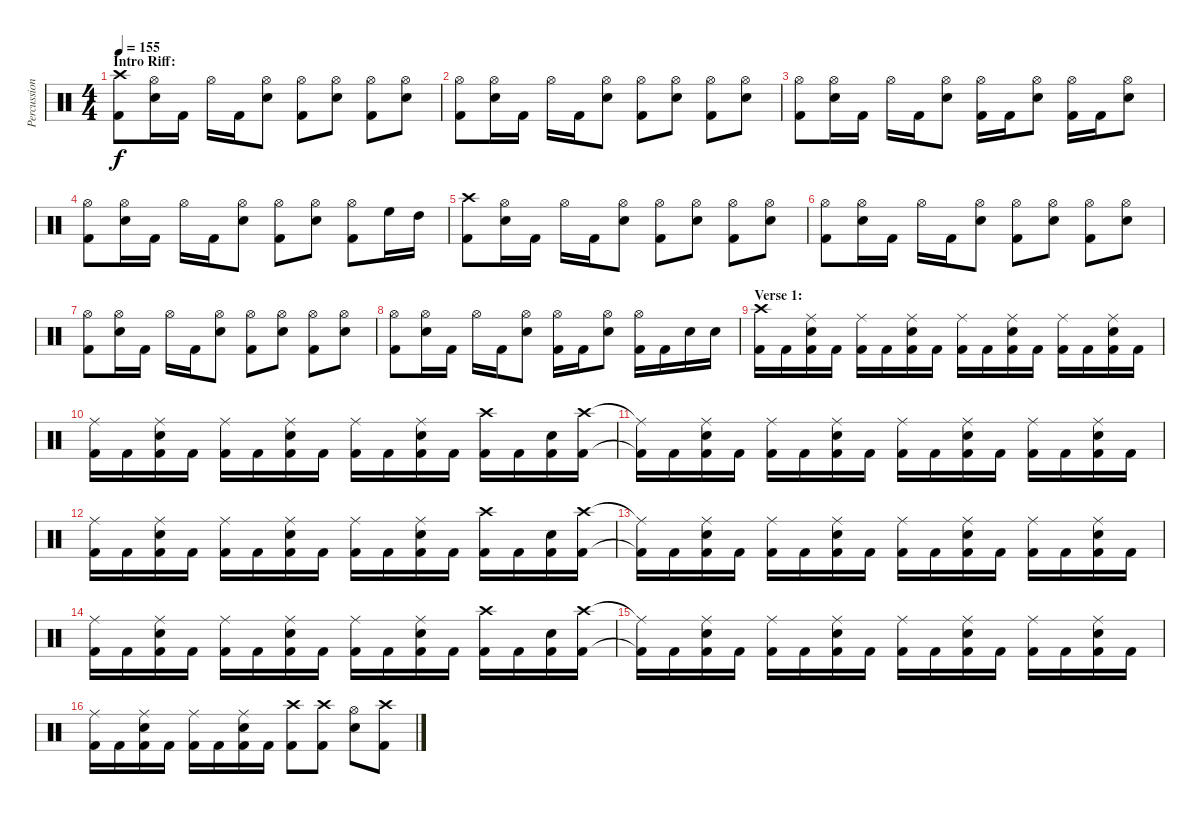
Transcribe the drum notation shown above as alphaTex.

\track ("Percussion" "Percussion") {instrument percussion}
\staff {score}
\articulation defaults
\ts (4 4)
\section ("" "Intro Riff:")
\tempo 155
\clef neutral
\ks c
("Crash high (hit)" "Kick (hit) 2").8{dy f} ("Hi-Hat (open)" "Electric Snare (hit)").16 "Kick (hit) 2".16 "Hi-Hat (open)".16 "Kick (hit) 2".16 ("Hi-Hat (open)" "Electric Snare (hit)").8 ("Hi-Hat (open)" "Kick (hit) 2").8 ("Hi-Hat (open)" "Electric Snare (hit)").8 ("Hi-Hat (open)" "Kick (hit) 2").8 ("Hi-Hat (open)" "Electric Snare (hit)").8 |
("Hi-Hat (open)" "Kick (hit) 2").8 ("Hi-Hat (open)" "Electric Snare (hit)").16 "Kick (hit) 2".16 "Hi-Hat (open)".16 "Kick (hit) 2".16 ("Hi-Hat (open)" "Electric Snare (hit)").8 ("Hi-Hat (open)" "Kick (hit) 2").8 ("Hi-Hat (open)" "Electric Snare (hit)").8 ("Hi-Hat (open)" "Kick (hit) 2").8 ("Hi-Hat (open)" "Electric Snare (hit)").8 |
("Hi-Hat (open)" "Kick (hit) 2").8 ("Hi-Hat (open)" "Electric Snare (hit)").16 "Kick (hit) 2".16 "Hi-Hat (open)".16 "Kick (hit) 2".16 ("Hi-Hat (open)" "Electric Snare (hit)").8 ("Hi-Hat (open)" "Kick (hit) 2").16 "Kick (hit) 2".16 ("Hi-Hat (open)" "Electric Snare (hit)").8 ("Hi-Hat (open)" "Kick (hit) 2").16 "Kick (hit) 2".16 ("Hi-Hat (open)" "Electric Snare (hit)").8 |
("Hi-Hat (open)" "Kick (hit) 2").8 ("Hi-Hat (open)" "Electric Snare (hit)").16 "Kick (hit) 2".16 "Hi-Hat (open)".16 "Kick (hit) 2".16 ("Hi-Hat (open)" "Electric Snare (hit)").8 ("Hi-Hat (open)" "Kick (hit) 2").8 ("Hi-Hat (open)" "Electric Snare (hit)").8 ("Hi-Hat (open)" "Kick (hit) 2").8 "High Floor Tom (hit)".16 "High Tom (hit)".16 |
("Crash high (hit)" "Kick (hit) 2").8 ("Hi-Hat (open)" "Electric Snare (hit)").16 "Kick (hit) 2".16 "Hi-Hat (open)".16 "Kick (hit) 2".16 ("Hi-Hat (open)" "Electric Snare (hit)").8 ("Hi-Hat (open)" "Kick (hit) 2").8 ("Hi-Hat (open)" "Electric Snare (hit)").8 ("Hi-Hat (open)" "Kick (hit) 2").8 ("Hi-Hat (open)" "Electric Snare (hit)").8 |
("Hi-Hat (open)" "Kick (hit) 2").8 ("Hi-Hat (open)" "Electric Snare (hit)").16 "Kick (hit) 2".16 "Hi-Hat (open)".16 "Kick (hit) 2".16 ("Hi-Hat (open)" "Electric Snare (hit)").8 ("Hi-Hat (open)" "Kick (hit) 2").8 ("Hi-Hat (open)" "Electric Snare (hit)").8 ("Hi-Hat (open)" "Kick (hit) 2").8 ("Hi-Hat (open)" "Electric Snare (hit)").8 |
("Hi-Hat (open)" "Kick (hit) 2").8 ("Hi-Hat (open)" "Electric Snare (hit)").16 "Kick (hit) 2".16 "Hi-Hat (open)".16 "Kick (hit) 2".16 ("Hi-Hat (open)" "Electric Snare (hit)").8 ("Hi-Hat (open)" "Kick (hit) 2").8 ("Hi-Hat (open)" "Electric Snare (hit)").8 ("Hi-Hat (open)" "Kick (hit) 2").8 ("Hi-Hat (open)" "Electric Snare (hit)").8 |
("Hi-Hat (open)" "Kick (hit) 2").8 ("Hi-Hat (open)" "Electric Snare (hit)").16 "Kick (hit) 2".16 "Hi-Hat (open)".16 "Kick (hit) 2".16 ("Hi-Hat (open)" "Electric Snare (hit)").8 ("Hi-Hat (open)" "Kick (hit) 2").16 "Kick (hit) 2".16 ("Hi-Hat (open)" "Electric Snare (hit)").8 ("Hi-Hat (open)" "Kick (hit) 2").16 "Kick (hit) 2".16 "Electric Snare (hit)".16 "Electric Snare (hit)".16 |
\section ("" "Verse 1:")
("Crash high (hit)" "Kick (hit) 2").16 "Kick (hit) 2".16 ("Ride (middle)" "Electric Snare (hit)" "Kick (hit) 2").16 "Kick (hit) 2".16 ("Ride (middle)" "Kick (hit) 2").16 "Kick (hit) 2".16 ("Ride (middle)" "Electric Snare (hit)" "Kick (hit) 2").16 "Kick (hit) 2".16 ("Ride (middle)" "Kick (hit) 2").16 "Kick (hit) 2".16 ("Ride (middle)" "Electric Snare (hit)" "Kick (hit) 2").16 "Kick (hit) 2".16 ("Ride (middle)" "Kick (hit) 2").16 "Kick (hit) 2".16 ("Ride (middle)" "Electric Snare (hit)" "Kick (hit) 2").16 "Kick (hit) 2".16 |
("Ride (middle)" "Kick (hit) 2").16 "Kick (hit) 2".16 ("Ride (middle)" "Electric Snare (hit)" "Kick (hit) 2").16 "Kick (hit) 2".16 ("Ride (middle)" "Kick (hit) 2").16 "Kick (hit) 2".16 ("Ride (middle)" "Electric Snare (hit)" "Kick (hit) 2").16 "Kick (hit) 2".16 ("Ride (middle)" "Kick (hit) 2").16 "Kick (hit) 2".16 ("Ride (middle)" "Electric Snare (hit)" "Kick (hit) 2").16 "Kick (hit) 2".16 ("Crash high (hit)" "Kick (hit) 2").16 "Kick (hit) 2".16 ("Electric Snare (hit)" "Kick (hit) 2").16 ("Crash high (hit)" "Kick (hit) 2").16 |
("Ride (middle)"{t} "Kick (hit) 2"{t}).16 "Kick (hit) 2".16 ("Ride (middle)" "Electric Snare (hit)" "Kick (hit) 2").16 "Kick (hit) 2".16 ("Ride (middle)" "Kick (hit) 2").16 "Kick (hit) 2".16 ("Ride (middle)" "Electric Snare (hit)" "Kick (hit) 2").16 "Kick (hit) 2".16 ("Ride (middle)" "Kick (hit) 2").16 "Kick (hit) 2".16 ("Ride (middle)" "Electric Snare (hit)" "Kick (hit) 2").16 "Kick (hit) 2".16 ("Ride (middle)" "Kick (hit) 2").16 "Kick (hit) 2".16 ("Ride (middle)" "Electric Snare (hit)" "Kick (hit) 2").16 "Kick (hit) 2".16 |
("Ride (middle)" "Kick (hit) 2").16 "Kick (hit) 2".16 ("Ride (middle)" "Electric Snare (hit)" "Kick (hit) 2").16 "Kick (hit) 2".16 ("Ride (middle)" "Kick (hit) 2").16 "Kick (hit) 2".16 ("Ride (middle)" "Electric Snare (hit)" "Kick (hit) 2").16 "Kick (hit) 2".16 ("Ride (middle)" "Kick (hit) 2").16 "Kick (hit) 2".16 ("Ride (middle)" "Electric Snare (hit)" "Kick (hit) 2").16 "Kick (hit) 2".16 ("Crash high (hit)" "Kick (hit) 2").16 "Kick (hit) 2".16 ("Electric Snare (hit)" "Kick (hit) 2").16 ("Crash high (hit)" "Kick (hit) 2").16 |
("Ride (middle)"{t} "Kick (hit) 2"{t}).16 "Kick (hit) 2".16 ("Ride (middle)" "Electric Snare (hit)" "Kick (hit) 2").16 "Kick (hit) 2".16 ("Ride (middle)" "Kick (hit) 2").16 "Kick (hit) 2".16 ("Ride (middle)" "Electric Snare (hit)" "Kick (hit) 2").16 "Kick (hit) 2".16 ("Ride (middle)" "Kick (hit) 2").16 "Kick (hit) 2".16 ("Ride (middle)" "Electric Snare (hit)" "Kick (hit) 2").16 "Kick (hit) 2".16 ("Ride (middle)" "Kick (hit) 2").16 "Kick (hit) 2".16 ("Ride (middle)" "Electric Snare (hit)" "Kick (hit) 2").16 "Kick (hit) 2".16 |
("Ride (middle)" "Kick (hit) 2").16 "Kick (hit) 2".16 ("Ride (middle)" "Electric Snare (hit)" "Kick (hit) 2").16 "Kick (hit) 2".16 ("Ride (middle)" "Kick (hit) 2").16 "Kick (hit) 2".16 ("Ride (middle)" "Electric Snare (hit)" "Kick (hit) 2").16 "Kick (hit) 2".16 ("Ride (middle)" "Kick (hit) 2").16 "Kick (hit) 2".16 ("Ride (middle)" "Electric Snare (hit)" "Kick (hit) 2").16 "Kick (hit) 2".16 ("Crash high (hit)" "Kick (hit) 2").16 "Kick (hit) 2".16 ("Electric Snare (hit)" "Kick (hit) 2").16 ("Crash high (hit)" "Kick (hit) 2").16 |
("Ride (middle)"{t} "Kick (hit) 2"{t}).16 "Kick (hit) 2".16 ("Ride (middle)" "Electric Snare (hit)" "Kick (hit) 2").16 "Kick (hit) 2".16 ("Ride (middle)" "Kick (hit) 2").16 "Kick (hit) 2".16 ("Ride (middle)" "Electric Snare (hit)" "Kick (hit) 2").16 "Kick (hit) 2".16 ("Ride (middle)" "Kick (hit) 2").16 "Kick (hit) 2".16 ("Ride (middle)" "Electric Snare (hit)" "Kick (hit) 2").16 "Kick (hit) 2".16 ("Ride (middle)" "Kick (hit) 2").16 "Kick (hit) 2".16 ("Ride (middle)" "Electric Snare (hit)" "Kick (hit) 2").16 "Kick (hit) 2".16 |
("Ride (middle)" "Kick (hit) 2").16 "Kick (hit) 2".16 ("Ride (middle)" "Electric Snare (hit)" "Kick (hit) 2").16 "Kick (hit) 2".16 ("Ride (middle)" "Kick (hit) 2").16 "Kick (hit) 2".16 ("Ride (middle)" "Electric Snare (hit)" "Kick (hit) 2").16 "Kick (hit) 2".16 ("Crash high (hit)" "Kick (hit) 2").8 ("Crash high (hit)" "Kick (hit) 2").8 ("Hi-Hat (open)" "Electric Snare (hit)").8 ("Crash high (hit)" "Kick (hit) 2").8
